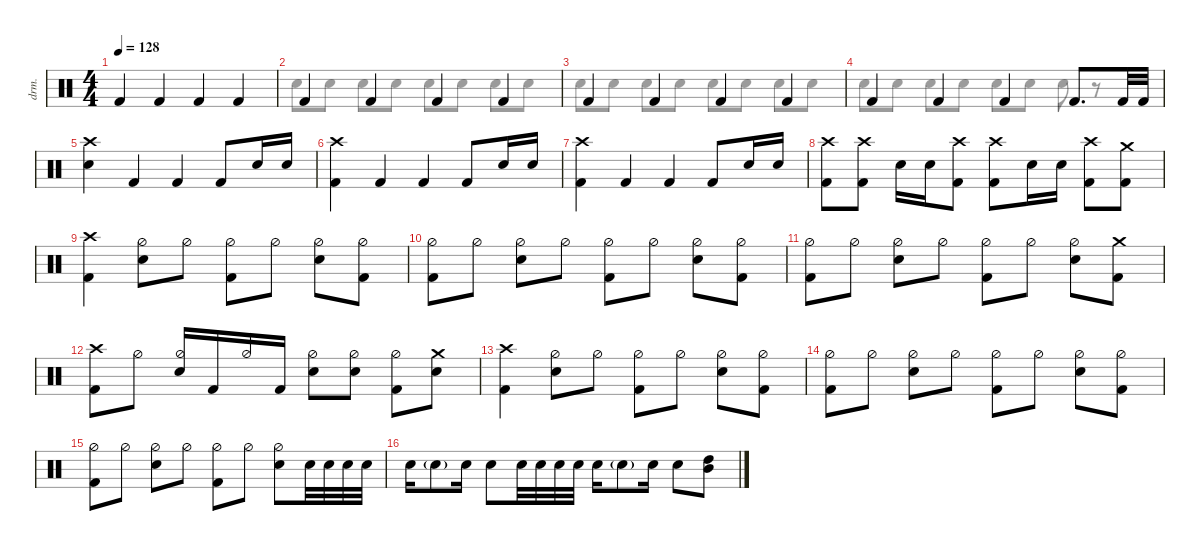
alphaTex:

\defaultSystemsLayout 4
\hideDynamics
\bracketExtendMode nobrackets
\otherSystemsTrackNameOrientation horizontal
\track ("Drumkit" "drm.") {defaultSystemsLayout 4 multiBarRest instrument percussion}
\staff
\articulation defaults
\voice
\ts (4 4)
\tempo 128
\clef neutral
\ks c "Kick (hit) 2".4{dy f beam Up} "Kick (hit) 2".4{beam Up} "Kick (hit) 2".4{beam Up} "Kick (hit) 2".4{beam Up}
|
"Kick (hit) 2".4{beam Up} "Kick (hit) 2".4{beam Up} "Kick (hit) 2".4{beam Up} "Kick (hit) 2".4{beam Up} |
"Kick (hit) 2".4{beam Up} "Kick (hit) 2".4{beam Up} "Kick (hit) 2".4{beam Up} "Kick (hit) 2".4{beam Up} |
"Kick (hit) 2".4{beam Up} "Kick (hit) 2".4{beam Up} "Kick (hit) 2".4{beam Up} "Kick (hit) 2".8{d beam Up} "Kick (hit) 2".32{beam Up} "Kick (hit) 2".32{beam Up} |
("Snare (hit) 2" "Crash high (hit)").4{beam Down} "Kick (hit) 2".4{beam Up} "Kick (hit) 2".4{beam Up} "Kick (hit) 2".8{beam Up} "Snare (hit) 2".16{beam Up} "Snare (hit) 2".16{beam Up} |
("Crash high (hit)" "Kick (hit) 2").4{beam Down} "Kick (hit) 2".4{beam Up} "Kick (hit) 2".4{beam Up} "Kick (hit) 2".8{beam Up} "Snare (hit) 2".16{beam Up} "Snare (hit) 2".16{beam Up} |
("Crash high (hit)" "Kick (hit) 2").4{beam Down} "Kick (hit) 2".4{beam Up} "Kick (hit) 2".4{beam Up} "Kick (hit) 2".8{beam Up} "Snare (hit) 2".16{beam Up} "Snare (hit) 2".16{beam Up} |
("Crash high (hit)" "Kick (hit) 2").8{beam Down} ("Crash high (hit)" "Kick (hit) 2").8{beam Down} "Snare (hit) 2".16{beam Down} "Snare (hit) 2".16{beam Down} ("Crash high (hit)" "Kick (hit) 2").8{beam Down} ("Crash high (hit)" "Kick (hit) 2").8{beam Down} "Snare (hit) 2".16{beam Down} "Snare (hit) 2".16{beam Down} ("Crash high (hit)" "Kick (hit) 2").8{beam Down} ("Crash medium (hit)" "Kick (hit) 2").8{beam Down} |
("Kick (hit) 2" "Crash high (hit)").4{beam Down} ("Hi-Hat (half)" "Snare (hit) 2").8{beam Down} "Hi-Hat (half)".8{beam Down} ("Kick (hit) 2" "Hi-Hat (half)").8{beam Down} "Hi-Hat (half)".8{beam Down} ("Hi-Hat (half)" "Snare (hit) 2").8{beam Down} ("Hi-Hat (half)" "Kick (hit) 2").8{beam Down} |
("Kick (hit) 2" "Hi-Hat (half)").8{beam Down} "Hi-Hat (half)".8{beam Down} ("Hi-Hat (half)" "Snare (hit) 2").8{beam Down} "Hi-Hat (half)".8{beam Down} ("Kick (hit) 2" "Hi-Hat (half)").8{beam Down} "Hi-Hat (half)".8{beam Down} ("Hi-Hat (half)" "Snare (hit) 2").8{beam Down} ("Hi-Hat (half)" "Kick (hit) 2").8{beam Down} |
("Kick (hit) 2" "Hi-Hat (half)").8{beam Down} "Hi-Hat (half)".8{beam Down} ("Hi-Hat (half)" "Snare (hit) 2").8{beam Down} "Hi-Hat (half)".8{beam Down} ("Kick (hit) 2" "Hi-Hat (half)").8{beam Down} "Hi-Hat (half)".8{beam Down} ("Hi-Hat (half)" "Snare (hit) 2").8{beam Down} ("Kick (hit) 2" "Crash medium (hit)").8{beam Down} |
("Kick (hit) 2" "Crash high (hit)").8{beam Down} "Hi-Hat (half)".8{beam Down} ("Hi-Hat (half)" "Snare (hit) 2").16{beam Up} "Kick (hit) 2".16{beam Up} "Hi-Hat (half)".16{beam Up} "Kick (hit) 2".16{beam Up} ("Hi-Hat (half)" "Snare (hit) 2").8{beam Down} ("Hi-Hat (half)" "Snare (hit) 2").8{beam Down} ("Hi-Hat (half)" "Kick (hit) 2").8{beam Down} ("Snare (hit) 2" "Crash medium (hit)").8{beam Down} |
("Kick (hit) 2" "Crash high (hit)").4{beam Down} ("Hi-Hat (half)" "Snare (hit) 2").8{beam Down} "Hi-Hat (half)".8{beam Down} ("Kick (hit) 2" "Hi-Hat (half)").8{beam Down} "Hi-Hat (half)".8{beam Down} ("Hi-Hat (half)" "Snare (hit) 2").8{beam Down} ("Hi-Hat (half)" "Kick (hit) 2").8{beam Down} |
("Kick (hit) 2" "Hi-Hat (half)").8{beam Down} "Hi-Hat (half)".8{beam Down} ("Hi-Hat (half)" "Snare (hit) 2").8{beam Down} "Hi-Hat (half)".8{beam Down} ("Kick (hit) 2" "Hi-Hat (half)").8{beam Down} "Hi-Hat (half)".8{beam Down} ("Hi-Hat (half)" "Snare (hit) 2").8{beam Down} ("Hi-Hat (half)" "Kick (hit) 2").8{beam Down} |
("Kick (hit) 2" "Hi-Hat (half)").8{beam Down} "Hi-Hat (half)".8{beam Down} ("Hi-Hat (half)" "Snare (hit) 2").8{beam Down} "Hi-Hat (half)".8{beam Down} ("Kick (hit) 2" "Hi-Hat (half)").8{beam Down} "Hi-Hat (half)".8{beam Down} ("Hi-Hat (half)" "Snare (hit) 2").8{beam Down} "Snare (hit) 2".32{beam Down} "Snare (hit) 2".32{dy mp beam Down} "Snare (hit) 2".32{beam Down} "Snare (hit) 2".32{dy mf beam Down} |
"Snare (hit) 2".16{dy f beam Down} "Snare (hit) 2"{g}.8{dy mp beam Down} "Snare (hit) 2".16{dy f beam Down} "Snare (hit) 2".8{beam Down} "Snare (hit) 2".32{beam Down} "Snare (hit) 2".32{dy mp beam Down} "Snare (hit) 2".32{beam Down} "Snare (hit) 2".32{dy f beam Down} "Snare (hit) 2".16{beam Down} "Snare (hit) 2"{g}.8{dy mp beam Down} "Snare (hit) 2".16{dy f beam Down} "Snare (hit) 2".8{beam Down} ("Mid Tom (hit)" "High Tom (hit)").8{dy fff beam Down}
\voice
\clef neutral
\ottava regular
\simile none
\ks c
|
"Snare (hit) 2".8{beam Down} "Snare (hit) 2".8{beam Down} "Snare (hit) 2".8{beam Down} "Snare (hit) 2".8{beam Down} "Snare (hit) 2".8{beam Down} "Snare (hit) 2".8{beam Down} "Snare (hit) 2".8{beam Down} "Snare (hit) 2".8{beam Down} |
"Snare (hit) 2".8{dy p beam Down} "Snare (hit) 2".8{beam Down} "Snare (hit) 2".8{beam Down} "Snare (hit) 2".8{beam Down} "Snare (hit) 2".8{dy mp beam Down} "Snare (hit) 2".8{beam Down} "Snare (hit) 2".8{beam Down} "Snare (hit) 2".8{beam Down} |
"Snare (hit) 2".8{dy mf beam Down} "Snare (hit) 2".8{beam Down} "Snare (hit) 2".8{beam Down} "Snare (hit) 2".8{beam Down} "Snare (hit) 2".8{dy f beam Down} "Snare (hit) 2".8{beam Down} "Snare (hit) 2".8{beam Down} r.8{beam Down} |
|
|
|
|
|
|
|
|
|
|
|
